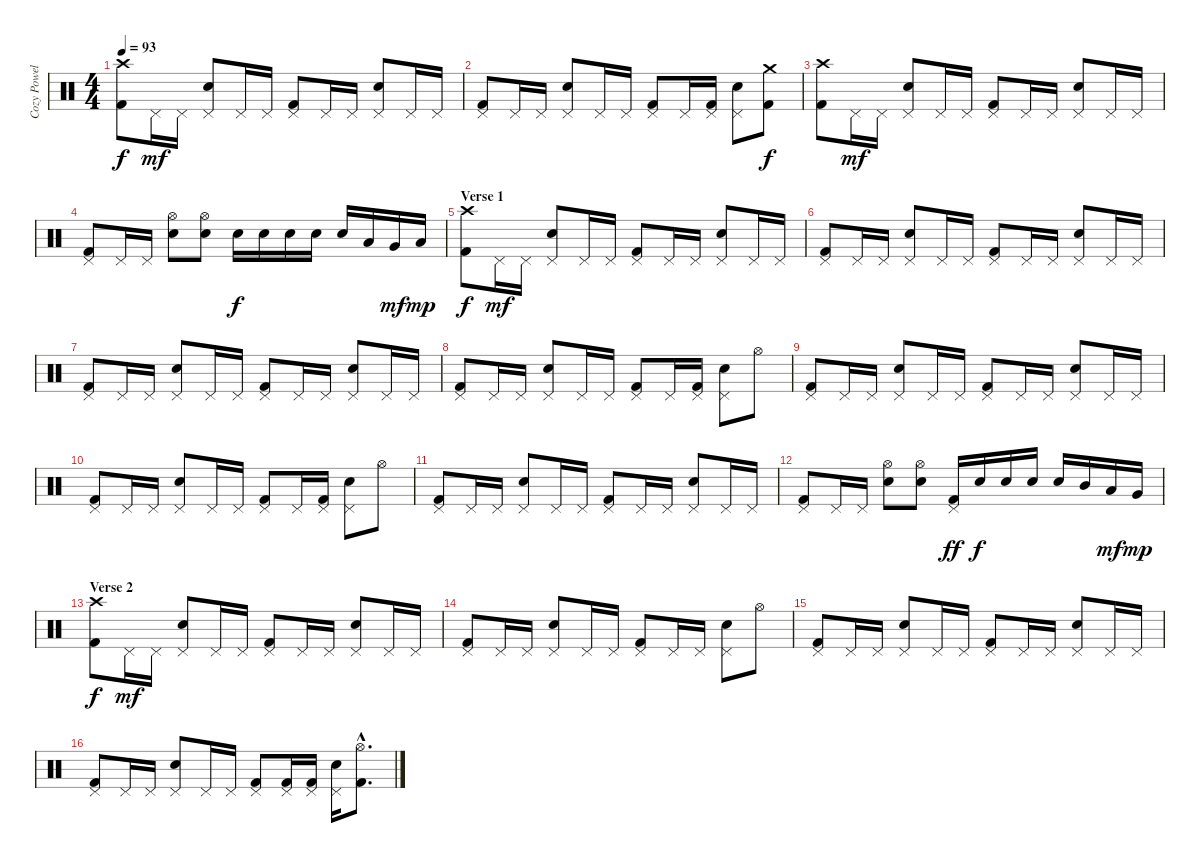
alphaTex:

\track ("Cozy Powell" "Cozy Powel") {instrument percussion}
\staff {score}
\articulation defaults
\ts (4 4)
\tempo 93
\clef neutral
\ks c
("Kick (hit) 2" "Crash high (hit)").8{dy f} "Pedal Hi-Hat (hit)".16{dy mf} "Pedal Hi-Hat (hit)".16 ("Pedal Hi-Hat (hit)" "Snare (hit) 2").8 "Pedal Hi-Hat (hit)".16 "Pedal Hi-Hat (hit)".16 ("Kick (hit) 2" "Pedal Hi-Hat (hit)").8 "Pedal Hi-Hat (hit)".16 "Pedal Hi-Hat (hit)".16 ("Pedal Hi-Hat (hit)" "Snare (hit) 2").8 "Pedal Hi-Hat (hit)".16 "Pedal Hi-Hat (hit)".16 |
("Kick (hit) 2" "Pedal Hi-Hat (hit)").8 "Pedal Hi-Hat (hit)".16 "Pedal Hi-Hat (hit)".16 ("Pedal Hi-Hat (hit)" "Snare (hit) 2").8 "Pedal Hi-Hat (hit)".16 "Pedal Hi-Hat (hit)".16 ("Kick (hit) 2" "Pedal Hi-Hat (hit)").8 "Pedal Hi-Hat (hit)".16 ("Kick (hit) 2" "Pedal Hi-Hat (hit)").16 ("Pedal Hi-Hat (hit)" "Snare (hit) 2").8 ("Kick (hit) 2" "Crash medium (hit)").8{dy f} |
("Kick (hit) 2" "Crash high (hit)").8 "Pedal Hi-Hat (hit)".16{dy mf} "Pedal Hi-Hat (hit)".16 ("Pedal Hi-Hat (hit)" "Snare (hit) 2").8 "Pedal Hi-Hat (hit)".16 "Pedal Hi-Hat (hit)".16 ("Kick (hit) 2" "Pedal Hi-Hat (hit)").8 "Pedal Hi-Hat (hit)".16 "Pedal Hi-Hat (hit)".16 ("Pedal Hi-Hat (hit)" "Snare (hit) 2").8 "Pedal Hi-Hat (hit)".16 "Pedal Hi-Hat (hit)".16 |
("Kick (hit) 2" "Pedal Hi-Hat (hit)").8 "Pedal Hi-Hat (hit)".16 "Pedal Hi-Hat (hit)".16 ("Hi-Hat (open)" "Snare (hit) 2").8 ("Hi-Hat (open)" "Snare (hit) 2").8 "Snare (hit) 2".16{dy f} "Snare (hit) 2".16 "Snare (hit) 2".16 "Snare (hit) 2".16 "Snare (hit) 2".16 "Low Tom (hit)".16 "Very Low Tom (hit)".16{dy mf} "Low Floor Tom (hit)".16{dy mp} |
\section ("" "Verse 1")
("Kick (hit) 2" "Crash high (hit)").8{dy f} "Pedal Hi-Hat (hit)".16{dy mf} "Pedal Hi-Hat (hit)".16 ("Pedal Hi-Hat (hit)" "Snare (hit) 2").8 "Pedal Hi-Hat (hit)".16 "Pedal Hi-Hat (hit)".16 ("Kick (hit) 2" "Pedal Hi-Hat (hit)").8 "Pedal Hi-Hat (hit)".16 "Pedal Hi-Hat (hit)".16 ("Pedal Hi-Hat (hit)" "Snare (hit) 2").8 "Pedal Hi-Hat (hit)".16 "Pedal Hi-Hat (hit)".16 |
("Kick (hit) 2" "Pedal Hi-Hat (hit)").8 "Pedal Hi-Hat (hit)".16 "Pedal Hi-Hat (hit)".16 ("Pedal Hi-Hat (hit)" "Snare (hit) 2").8 "Pedal Hi-Hat (hit)".16 "Pedal Hi-Hat (hit)".16 ("Kick (hit) 2" "Pedal Hi-Hat (hit)").8 "Pedal Hi-Hat (hit)".16 "Pedal Hi-Hat (hit)".16 ("Pedal Hi-Hat (hit)" "Snare (hit) 2").8 "Pedal Hi-Hat (hit)".16 "Pedal Hi-Hat (hit)".16 |
("Kick (hit) 2" "Pedal Hi-Hat (hit)").8 "Pedal Hi-Hat (hit)".16 "Pedal Hi-Hat (hit)".16 ("Pedal Hi-Hat (hit)" "Snare (hit) 2").8 "Pedal Hi-Hat (hit)".16 "Pedal Hi-Hat (hit)".16 ("Kick (hit) 2" "Pedal Hi-Hat (hit)").8 "Pedal Hi-Hat (hit)".16 "Pedal Hi-Hat (hit)".16 ("Pedal Hi-Hat (hit)" "Snare (hit) 2").8 "Pedal Hi-Hat (hit)".16 "Pedal Hi-Hat (hit)".16 |
("Kick (hit) 2" "Pedal Hi-Hat (hit)").8 "Pedal Hi-Hat (hit)".16 "Pedal Hi-Hat (hit)".16 ("Pedal Hi-Hat (hit)" "Snare (hit) 2").8 "Pedal Hi-Hat (hit)".16 "Pedal Hi-Hat (hit)".16 ("Kick (hit) 2" "Pedal Hi-Hat (hit)").8 "Pedal Hi-Hat (hit)".16 ("Kick (hit) 2" "Pedal Hi-Hat (hit)").16 ("Pedal Hi-Hat (hit)" "Snare (hit) 2").8 "Hi-Hat (open)".8 |
("Kick (hit) 2" "Pedal Hi-Hat (hit)").8 "Pedal Hi-Hat (hit)".16 "Pedal Hi-Hat (hit)".16 ("Pedal Hi-Hat (hit)" "Snare (hit) 2").8 "Pedal Hi-Hat (hit)".16 "Pedal Hi-Hat (hit)".16 ("Kick (hit) 2" "Pedal Hi-Hat (hit)").8 "Pedal Hi-Hat (hit)".16 "Pedal Hi-Hat (hit)".16 ("Pedal Hi-Hat (hit)" "Snare (hit) 2").8 "Pedal Hi-Hat (hit)".16 "Pedal Hi-Hat (hit)".16 |
("Kick (hit) 2" "Pedal Hi-Hat (hit)").8 "Pedal Hi-Hat (hit)".16 "Pedal Hi-Hat (hit)".16 ("Pedal Hi-Hat (hit)" "Snare (hit) 2").8 "Pedal Hi-Hat (hit)".16 "Pedal Hi-Hat (hit)".16 ("Kick (hit) 2" "Pedal Hi-Hat (hit)").8 "Pedal Hi-Hat (hit)".16 ("Kick (hit) 2" "Pedal Hi-Hat (hit)").16 ("Pedal Hi-Hat (hit)" "Snare (hit) 2").8 "Hi-Hat (open)".8 |
("Kick (hit) 2" "Pedal Hi-Hat (hit)").8 "Pedal Hi-Hat (hit)".16 "Pedal Hi-Hat (hit)".16 ("Pedal Hi-Hat (hit)" "Snare (hit) 2").8 "Pedal Hi-Hat (hit)".16 "Pedal Hi-Hat (hit)".16 ("Kick (hit) 2" "Pedal Hi-Hat (hit)").8 "Pedal Hi-Hat (hit)".16 "Pedal Hi-Hat (hit)".16 ("Pedal Hi-Hat (hit)" "Snare (hit) 2").8 "Pedal Hi-Hat (hit)".16 "Pedal Hi-Hat (hit)".16 |
("Kick (hit) 2" "Pedal Hi-Hat (hit)").8 "Pedal Hi-Hat (hit)".16 "Pedal Hi-Hat (hit)".16 ("Hi-Hat (open)" "Snare (hit) 2").8 ("Hi-Hat (open)" "Snare (hit) 2").8 ("Kick (hit) 2" "Pedal Hi-Hat (hit)").16{dy ff} "Snare (hit) 2".16{dy f} "Snare (hit) 2".16 "Snare (hit) 2".16 "Snare (hit) 2".16 "Mid Tom (hit)".16 "Low Tom (hit)".16{dy mf} "Very Low Tom (hit)".16{dy mp} |
\section ("" "Verse 2")
("Kick (hit) 2" "Crash high (hit)").8{dy f} "Pedal Hi-Hat (hit)".16{dy mf} "Pedal Hi-Hat (hit)".16 ("Pedal Hi-Hat (hit)" "Snare (hit) 2").8 "Pedal Hi-Hat (hit)".16 "Pedal Hi-Hat (hit)".16 ("Kick (hit) 2" "Pedal Hi-Hat (hit)").8 "Pedal Hi-Hat (hit)".16 "Pedal Hi-Hat (hit)".16 ("Pedal Hi-Hat (hit)" "Snare (hit) 2").8 "Pedal Hi-Hat (hit)".16 "Pedal Hi-Hat (hit)".16 |
("Kick (hit) 2" "Pedal Hi-Hat (hit)").8 "Pedal Hi-Hat (hit)".16 "Pedal Hi-Hat (hit)".16 ("Pedal Hi-Hat (hit)" "Snare (hit) 2").8 "Pedal Hi-Hat (hit)".16 "Pedal Hi-Hat (hit)".16 ("Kick (hit) 2" "Pedal Hi-Hat (hit)").8 "Pedal Hi-Hat (hit)".16 "Pedal Hi-Hat (hit)".16 ("Pedal Hi-Hat (hit)" "Snare (hit) 2").8 "Hi-Hat (open)".8 |
("Kick (hit) 2" "Pedal Hi-Hat (hit)").8 "Pedal Hi-Hat (hit)".16 "Pedal Hi-Hat (hit)".16 ("Pedal Hi-Hat (hit)" "Snare (hit) 2").8 "Pedal Hi-Hat (hit)".16 "Pedal Hi-Hat (hit)".16 ("Kick (hit) 2" "Pedal Hi-Hat (hit)").8 "Pedal Hi-Hat (hit)".16 "Pedal Hi-Hat (hit)".16 ("Pedal Hi-Hat (hit)" "Snare (hit) 2").8 "Pedal Hi-Hat (hit)".16 "Pedal Hi-Hat (hit)".16 |
("Kick (hit) 2" "Pedal Hi-Hat (hit)").8 "Pedal Hi-Hat (hit)".16 "Pedal Hi-Hat (hit)".16 ("Pedal Hi-Hat (hit)" "Snare (hit) 2").8 "Pedal Hi-Hat (hit)".16 "Pedal Hi-Hat (hit)".16 ("Kick (hit) 2" "Pedal Hi-Hat (hit)").8 ("Kick (hit) 2" "Pedal Hi-Hat (hit)").16 ("Kick (hit) 2" "Pedal Hi-Hat (hit)").16 ("Pedal Hi-Hat (hit)" "Snare (hit) 2").16 ("Kick (hit) 2"{hac} "Hi-Hat (open)"{hac}).8{d}
